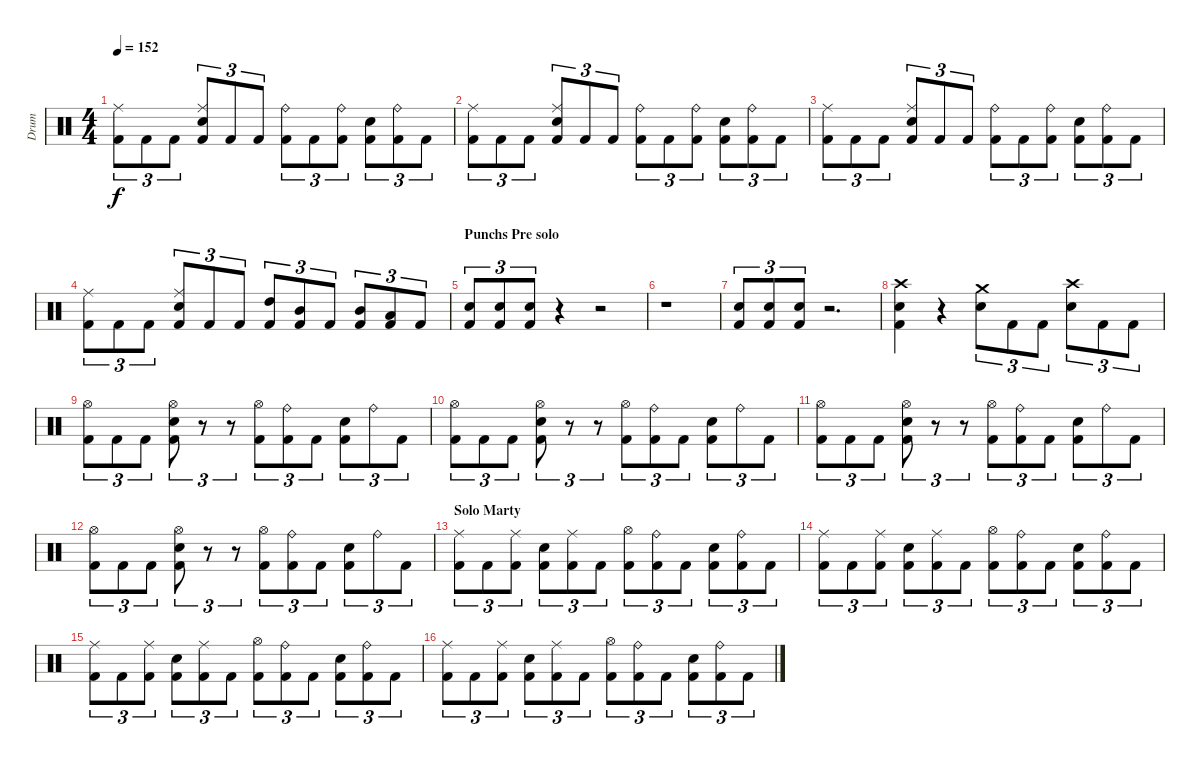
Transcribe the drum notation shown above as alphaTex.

\track ("Drum" "Drum") {instrument percussion}
\staff {score}
\articulation defaults
\ts (4 4)
\tempo 152
\clef neutral
\ks c
("Kick (hit) 2" "Ride (middle)").8{tu (3 2) dy f} "Kick (hit) 2".8{tu (3 2)} "Kick (hit) 2".8{tu (3 2)} ("Kick (hit) 2" "Ride (middle)" "Electric Snare (hit)").8{tu (3 2)} "Kick (hit) 2".8{tu (3 2)} "Kick (hit) 2".8{tu (3 2)} ("Kick (hit) 2" "Ride (bell)").8{tu (3 2)} "Kick (hit) 2".8{tu (3 2)} ("Kick (hit) 2" "Ride (bell)").8{tu (3 2)} ("Electric Snare (hit)" "Kick (hit) 2").8{tu (3 2)} ("Kick (hit) 2" "Ride (bell)").8{tu (3 2)} "Kick (hit) 2".8{tu (3 2)} |
("Ride (middle)" "Kick (hit) 2").8{tu (3 2)} "Kick (hit) 2".8{tu (3 2)} "Kick (hit) 2".8{tu (3 2)} ("Ride (middle)" "Electric Snare (hit)" "Kick (hit) 2").8{tu (3 2)} "Kick (hit) 2".8{tu (3 2)} "Kick (hit) 2".8{tu (3 2)} ("Kick (hit) 2" "Ride (bell)").8{tu (3 2)} "Kick (hit) 2".8{tu (3 2)} ("Kick (hit) 2" "Ride (bell)").8{tu (3 2)} ("Electric Snare (hit)" "Kick (hit) 2").8{tu (3 2)} ("Kick (hit) 2" "Ride (bell)").8{tu (3 2)} "Kick (hit) 2".8{tu (3 2)} |
("Ride (middle)" "Kick (hit) 2").8{tu (3 2)} "Kick (hit) 2".8{tu (3 2)} "Kick (hit) 2".8{tu (3 2)} ("Electric Snare (hit)" "Kick (hit) 2" "Ride (middle)").8{tu (3 2)} "Kick (hit) 2".8{tu (3 2)} "Kick (hit) 2".8{tu (3 2)} ("Ride (bell)" "Kick (hit) 2").8{tu (3 2)} "Kick (hit) 2".8{tu (3 2)} ("Ride (bell)" "Kick (hit) 2").8{tu (3 2)} ("Electric Snare (hit)" "Kick (hit) 2").8{tu (3 2)} ("Ride (bell)" "Kick (hit) 2").8{tu (3 2)} "Kick (hit) 2".8{tu (3 2)} |
("Ride (middle)" "Kick (hit) 2").8{tu (3 2)} "Kick (hit) 2".8{tu (3 2)} "Kick (hit) 2".8{tu (3 2)} ("Ride (middle)" "Kick (hit) 2" "Electric Snare (hit)").8{tu (3 2)} "Kick (hit) 2".8{tu (3 2)} "Kick (hit) 2".8{tu (3 2)} ("Kick (hit) 2" "High Tom (hit)").8{tu (3 2)} ("Kick (hit) 2" "Mid Tom (hit)").8{tu (3 2)} "Kick (hit) 2".8{tu (3 2)} ("Mid Tom (hit)" "Kick (hit) 2").8{tu (3 2)} ("Kick (hit) 2" "Low Tom (hit)").8{tu (3 2)} "Kick (hit) 2".8{tu (3 2)} |
\section ("" "Punchs Pre solo")
("Kick (hit) 2" "Electric Snare (hit)").8{tu (3 2)} ("Electric Snare (hit)" "Kick (hit) 2").8{tu (3 2)} ("Kick (hit) 2" "Electric Snare (hit)").8{tu (3 2)} r.4 r.2 |
r.1 |
("Electric Snare (hit)" "Kick (hit) 2").8{tu (3 2)} ("Electric Snare (hit)" "Kick (hit) 2").8{tu (3 2)} ("Kick (hit) 2" "Electric Snare (hit)").8{tu (3 2)} r.2{d} |
("Crash high (hit)" "Electric Snare (hit)" "Kick (hit) 2").4 r.4 ("Crash medium (hit)" "Electric Snare (hit)").8{tu (3 2)} "Kick (hit) 2".8{tu (3 2)} "Kick (hit) 2".8{tu (3 2)} ("Electric Snare (hit)" "Crash high (hit)").8{tu (3 2)} "Kick (hit) 2".8{tu (3 2)} "Kick (hit) 2".8{tu (3 2)} |
("Hi-Hat (open)" "Kick (hit) 2").8{tu (3 2)} "Kick (hit) 2".8{tu (3 2)} "Kick (hit) 2".8{tu (3 2)} ("Hi-Hat (open)" "Kick (hit) 2" "Electric Snare (hit)").8{tu (3 2)} r.8{tu (3 2)} r.8{tu (3 2)} ("Hi-Hat (open)" "Kick (hit) 2").8{tu (3 2)} ("Ride (bell)" "Kick (hit) 2").8{tu (3 2)} "Kick (hit) 2".8{tu (3 2)} ("Electric Snare (hit)" "Kick (hit) 2").8{tu (3 2)} "Ride (bell)".8{tu (3 2)} "Kick (hit) 2".8{tu (3 2)} |
("Hi-Hat (open)" "Kick (hit) 2").8{tu (3 2)} "Kick (hit) 2".8{tu (3 2)} "Kick (hit) 2".8{tu (3 2)} ("Electric Snare (hit)" "Kick (hit) 2" "Hi-Hat (open)").8{tu (3 2)} r.8{tu (3 2)} r.8{tu (3 2)} ("Hi-Hat (open)" "Kick (hit) 2").8{tu (3 2)} ("Ride (bell)" "Kick (hit) 2").8{tu (3 2)} "Kick (hit) 2".8{tu (3 2)} ("Electric Snare (hit)" "Kick (hit) 2").8{tu (3 2)} "Ride (bell)".8{tu (3 2)} "Kick (hit) 2".8{tu (3 2)} |
("Kick (hit) 2" "Hi-Hat (open)").8{tu (3 2)} "Kick (hit) 2".8{tu (3 2)} "Kick (hit) 2".8{tu (3 2)} ("Hi-Hat (open)" "Kick (hit) 2" "Electric Snare (hit)").8{tu (3 2)} r.8{tu (3 2)} r.8{tu (3 2)} ("Kick (hit) 2" "Hi-Hat (open)").8{tu (3 2)} ("Kick (hit) 2" "Ride (bell)").8{tu (3 2)} "Kick (hit) 2".8{tu (3 2)} ("Electric Snare (hit)" "Kick (hit) 2").8{tu (3 2)} "Ride (bell)".8{tu (3 2)} "Kick (hit) 2".8{tu (3 2)} |
("Hi-Hat (open)" "Kick (hit) 2").8{tu (3 2)} "Kick (hit) 2".8{tu (3 2)} "Kick (hit) 2".8{tu (3 2)} ("Electric Snare (hit)" "Kick (hit) 2" "Hi-Hat (open)").8{tu (3 2)} r.8{tu (3 2)} r.8{tu (3 2)} ("Kick (hit) 2" "Hi-Hat (open)").8{tu (3 2)} ("Kick (hit) 2" "Ride (bell)").8{tu (3 2)} "Kick (hit) 2".8{tu (3 2)} ("Electric Snare (hit)" "Kick (hit) 2").8{tu (3 2)} "Ride (bell)".8{tu (3 2)} "Kick (hit) 2".8{tu (3 2)} |
\section ("" "Solo Marty")
("Ride (middle)" "Kick (hit) 2").8{tu (3 2)} "Kick (hit) 2".8{tu (3 2)} ("Ride (middle)" "Kick (hit) 2").8{tu (3 2)} ("Electric Snare (hit)" "Kick (hit) 2").8{tu (3 2)} ("Ride (middle)" "Kick (hit) 2").8{tu (3 2)} "Kick (hit) 2".8{tu (3 2)} ("Hi-Hat (open)" "Kick (hit) 2").8{tu (3 2)} ("Kick (hit) 2" "Ride (bell)").8{tu (3 2)} "Kick (hit) 2".8{tu (3 2)} ("Kick (hit) 2" "Electric Snare (hit)").8{tu (3 2)} ("Kick (hit) 2" "Ride (bell)").8{tu (3 2)} "Kick (hit) 2".8{tu (3 2)} |
("Kick (hit) 2" "Ride (middle)").8{tu (3 2)} "Kick (hit) 2".8{tu (3 2)} ("Ride (middle)" "Kick (hit) 2").8{tu (3 2)} ("Electric Snare (hit)" "Kick (hit) 2").8{tu (3 2)} ("Kick (hit) 2" "Ride (middle)").8{tu (3 2)} "Kick (hit) 2".8{tu (3 2)} ("Kick (hit) 2" "Hi-Hat (open)").8{tu (3 2)} ("Kick (hit) 2" "Ride (bell)").8{tu (3 2)} "Kick (hit) 2".8{tu (3 2)} ("Electric Snare (hit)" "Kick (hit) 2").8{tu (3 2)} ("Ride (bell)" "Kick (hit) 2").8{tu (3 2)} "Kick (hit) 2".8{tu (3 2)} |
("Kick (hit) 2" "Ride (middle)").8{tu (3 2)} "Kick (hit) 2".8{tu (3 2)} ("Ride (middle)" "Kick (hit) 2").8{tu (3 2)} ("Electric Snare (hit)" "Kick (hit) 2").8{tu (3 2)} ("Ride (middle)" "Kick (hit) 2").8{tu (3 2)} "Kick (hit) 2".8{tu (3 2)} ("Kick (hit) 2" "Hi-Hat (open)").8{tu (3 2)} ("Kick (hit) 2" "Ride (bell)").8{tu (3 2)} "Kick (hit) 2".8{tu (3 2)} ("Kick (hit) 2" "Electric Snare (hit)").8{tu (3 2)} ("Ride (bell)" "Kick (hit) 2").8{tu (3 2)} "Kick (hit) 2".8{tu (3 2)} |
("Ride (middle)" "Kick (hit) 2").8{tu (3 2)} "Kick (hit) 2".8{tu (3 2)} ("Kick (hit) 2" "Ride (middle)").8{tu (3 2)} ("Electric Snare (hit)" "Kick (hit) 2").8{tu (3 2)} ("Ride (middle)" "Kick (hit) 2").8{tu (3 2)} "Kick (hit) 2".8{tu (3 2)} ("Kick (hit) 2" "Hi-Hat (open)").8{tu (3 2)} ("Kick (hit) 2" "Ride (bell)").8{tu (3 2)} "Kick (hit) 2".8{tu (3 2)} ("Electric Snare (hit)" "Kick (hit) 2").8{tu (3 2)} ("Ride (bell)" "Kick (hit) 2").8{tu (3 2)} "Kick (hit) 2".8{tu (3 2)}
